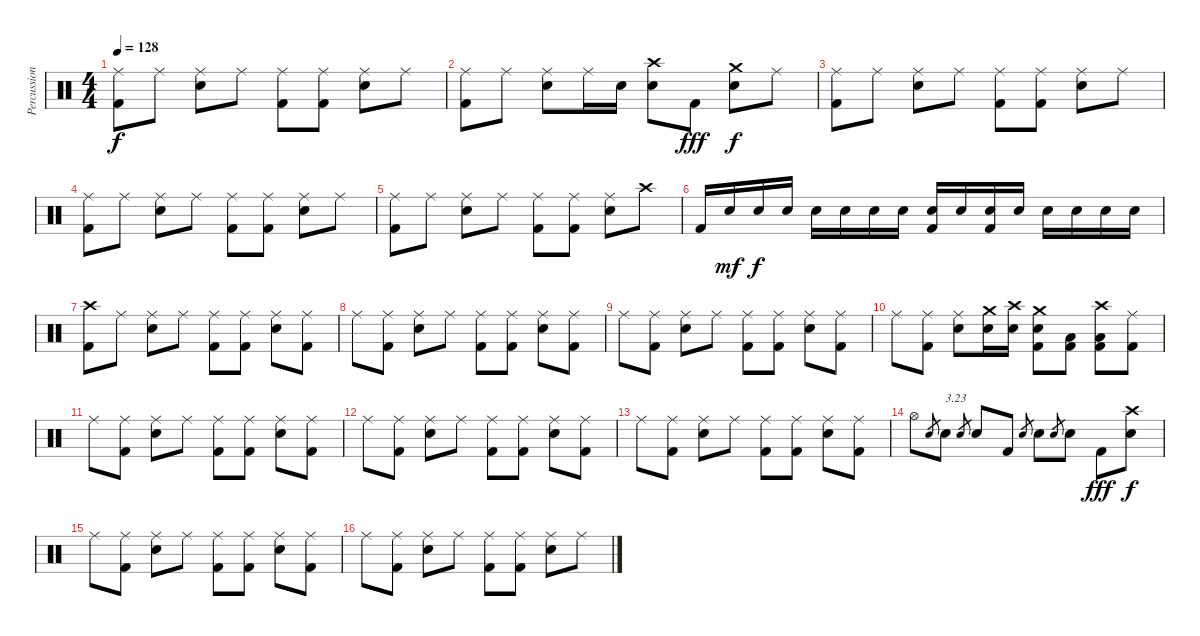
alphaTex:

\track ("Percussion" "Percussion") {instrument percussion bank 10}
\staff {score}
\articulation defaults
\ts (4 4)
\tempo 128
\clef neutral
\ks c
("Ride (middle)" "Kick (hit) 2").8{dy f} "Ride (middle)".8 ("Ride (middle)" "Snare (hit) 2").8 "Ride (middle)".8 ("Ride (middle)" "Kick (hit) 2").8 ("Ride (middle)" "Kick (hit) 2").8 ("Ride (middle)" "Snare (hit) 2").8 "Ride (middle)".8 |
("Ride (middle)" "Kick (hit) 2").8 "Ride (middle)".8 ("Ride (middle)" "Snare (hit) 2").8 "Ride (middle)".16 "Snare (hit) 2".16 ("Crash high (hit)" "Snare (hit) 2").8 "Kick (hit) 2".8{dy fff} ("Crash medium (hit)" "Snare (hit) 2").8{dy f} "Ride (middle)".8 |
("Ride (middle)" "Kick (hit) 2").8 "Ride (middle)".8 ("Ride (middle)" "Snare (hit) 2").8 "Ride (middle)".8 ("Ride (middle)" "Kick (hit) 2").8 ("Ride (middle)" "Kick (hit) 2").8 ("Ride (middle)" "Snare (hit) 2").8 "Ride (middle)".8 |
("Ride (middle)" "Kick (hit) 2").8 "Ride (middle)".8 ("Ride (middle)" "Snare (hit) 2").8 "Ride (middle)".8 ("Ride (middle)" "Kick (hit) 2").8 ("Ride (middle)" "Kick (hit) 2").8 ("Ride (middle)" "Snare (hit) 2").8 "Ride (middle)".8 |
("Ride (middle)" "Kick (hit) 2").8 "Ride (middle)".8 ("Ride (middle)" "Snare (hit) 2").8 "Ride (middle)".8 ("Ride (middle)" "Kick (hit) 2").8 ("Ride (middle)" "Kick (hit) 2").8 ("Ride (middle)" "Snare (hit) 2").8 "Crash high (hit)".8 |
"Kick (hit) 2".16 "Snare (hit) 2".16{dy mf} "Snare (hit) 2".16{dy f} "Snare (hit) 2".16 "Snare (hit) 2".16 "Snare (hit) 2".16 "Snare (hit) 2".16 "Snare (hit) 2".16 ("Snare (hit) 2" "Kick (hit) 2").16 "Snare (hit) 2".16 ("Snare (hit) 2" "Kick (hit) 2").16 "Snare (hit) 2".16 "Snare (hit) 2".16 "Snare (hit) 2".16 "Snare (hit) 2".16 "Snare (hit) 2".16 |
("Crash high (hit)" "Kick (hit) 2").8 "Ride (middle)".8 ("Ride (middle)" "Snare (hit) 2").8 "Ride (middle)".8 ("Ride (middle)" "Kick (hit) 2").8 ("Ride (middle)" "Kick (hit) 2").8 ("Ride (middle)" "Snare (hit) 2").8 ("Ride (middle)" "Kick (hit) 2").8 |
"Ride (middle)".8 ("Ride (middle)" "Kick (hit) 2").8 ("Ride (middle)" "Snare (hit) 2").8 "Ride (middle)".8 ("Ride (middle)" "Kick (hit) 2").8 ("Ride (middle)" "Kick (hit) 2").8 ("Ride (middle)" "Snare (hit) 2").8 ("Ride (middle)" "Kick (hit) 2").8 |
"Ride (middle)".8 ("Ride (middle)" "Kick (hit) 2").8 ("Ride (middle)" "Snare (hit) 2").8 "Ride (middle)".8 ("Ride (middle)" "Kick (hit) 2").8 ("Ride (middle)" "Kick (hit) 2").8 ("Ride (middle)" "Snare (hit) 2").8 ("Ride (middle)" "Kick (hit) 2").8 |
"Ride (middle)".8 ("Ride (middle)" "Kick (hit) 2").8 ("Ride (middle)" "Snare (hit) 2").8 ("Crash medium (hit)" "Snare (hit) 2").16 ("Crash high (hit)" "Snare (hit) 2").16 ("Crash medium (hit)" "Snare (hit) 2" "Kick (hit) 2").8 ("Low Tom (hit)" "Kick (hit) 2").8 ("Crash high (hit)" "Low Floor Tom (hit)" "Kick (hit) 2").8 ("Ride (middle)" "Kick (hit) 2").8 |
"Ride (middle)".8 ("Ride (middle)" "Kick (hit) 2").8 ("Ride (middle)" "Snare (hit) 2").8 "Ride (middle)".8 ("Ride (middle)" "Kick (hit) 2").8 ("Ride (middle)" "Kick (hit) 2").8 ("Ride (middle)" "Snare (hit) 2").8 ("Ride (middle)" "Kick (hit) 2").8 |
"Ride (middle)".8 ("Ride (middle)" "Kick (hit) 2").8 ("Ride (middle)" "Snare (hit) 2").8 "Ride (middle)".8 ("Ride (middle)" "Kick (hit) 2").8 ("Ride (middle)" "Kick (hit) 2").8 ("Ride (middle)" "Snare (hit) 2").8 ("Ride (middle)" "Kick (hit) 2").8 |
"Ride (middle)".8 ("Ride (middle)" "Kick (hit) 2").8 ("Ride (middle)" "Snare (hit) 2").8 "Ride (middle)".8 ("Ride (middle)" "Kick (hit) 2").8 ("Ride (middle)" "Kick (hit) 2").8 ("Ride (middle)" "Snare (hit) 2").8 ("Ride (middle)" "Kick (hit) 2").8 |
"Hi-Hat (open)".8 "Snare (hit) 2".8{gr} "Snare (hit) 2".8{txt "3.23"} "Snare (hit) 2".8{gr} "Snare (hit) 2".8 "Kick (hit) 2".8 "Snare (hit) 2".8{gr} "Snare (hit) 2".8 "Snare (hit) 2".8{gr} "Snare (hit) 2".8 "Kick (hit) 2".8{dy fff} ("Crash high (hit)" "Snare (hit) 2").8{dy f} |
"Ride (middle)".8 ("Ride (middle)" "Kick (hit) 2").8 ("Ride (middle)" "Snare (hit) 2").8 "Ride (middle)".8 ("Ride (middle)" "Kick (hit) 2").8 ("Ride (middle)" "Kick (hit) 2").8 ("Ride (middle)" "Snare (hit) 2").8 ("Ride (middle)" "Kick (hit) 2").8 |
"Ride (middle)".8 ("Ride (middle)" "Kick (hit) 2").8 ("Ride (middle)" "Snare (hit) 2").8 "Ride (middle)".8 ("Ride (middle)" "Kick (hit) 2").8 ("Ride (middle)" "Kick (hit) 2").8 ("Ride (middle)" "Snare (hit) 2").8 "Ride (middle)".8
